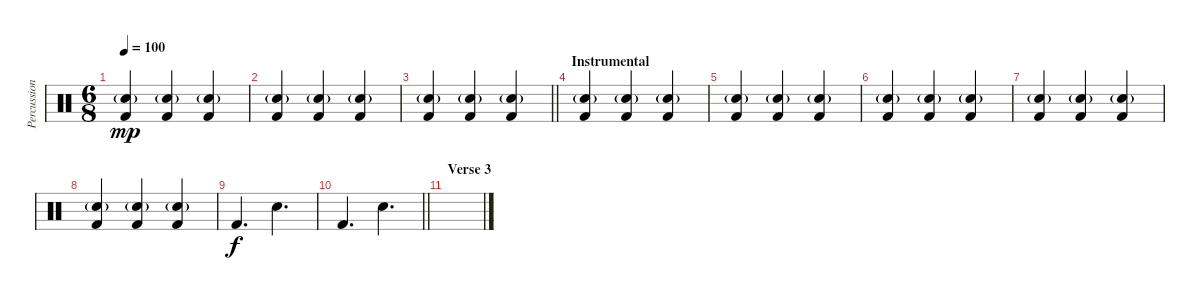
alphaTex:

\track ("Percussion" "Percussion") {instrument percussion}
\staff {score}
\articulation defaults
\ts (6 8)
\tempo 100
\clef neutral
\ks c
("Snare (hit) 2"{g} "Kick (hit) 2").4{dy mp} ("Snare (hit) 2"{g} "Kick (hit) 2").4 ("Snare (hit) 2"{g} "Kick (hit) 2").4 |
("Snare (hit) 2"{g} "Kick (hit) 2").4 ("Snare (hit) 2"{g} "Kick (hit) 2").4 ("Snare (hit) 2"{g} "Kick (hit) 2").4 |
\barLineRight lightlight
("Snare (hit) 2"{g} "Kick (hit) 2").4 ("Snare (hit) 2"{g} "Kick (hit) 2").4 ("Snare (hit) 2"{g} "Kick (hit) 2").4 |
\section ("" "Instrumental")
("Snare (hit) 2"{g} "Kick (hit) 2").4 ("Snare (hit) 2"{g} "Kick (hit) 2").4 ("Snare (hit) 2"{g} "Kick (hit) 2").4 |
("Snare (hit) 2"{g} "Kick (hit) 2").4 ("Snare (hit) 2"{g} "Kick (hit) 2").4 ("Snare (hit) 2"{g} "Kick (hit) 2").4 |
("Snare (hit) 2"{g} "Kick (hit) 2").4 ("Snare (hit) 2"{g} "Kick (hit) 2").4 ("Snare (hit) 2"{g} "Kick (hit) 2").4 |
("Snare (hit) 2"{g} "Kick (hit) 2").4 ("Snare (hit) 2"{g} "Kick (hit) 2").4 ("Snare (hit) 2"{g} "Kick (hit) 2").4 |
("Snare (hit) 2"{g} "Kick (hit) 2").4 ("Snare (hit) 2"{g} "Kick (hit) 2").4 ("Snare (hit) 2"{g} "Kick (hit) 2").4 |
"Kick (hit) 2".4{d dy f} "Snare (hit) 2".4{d} |
\barLineRight lightlight "Kick (hit) 2".4{d} "Snare (hit) 2".4{d}
|
\section ("" "Verse 3")
